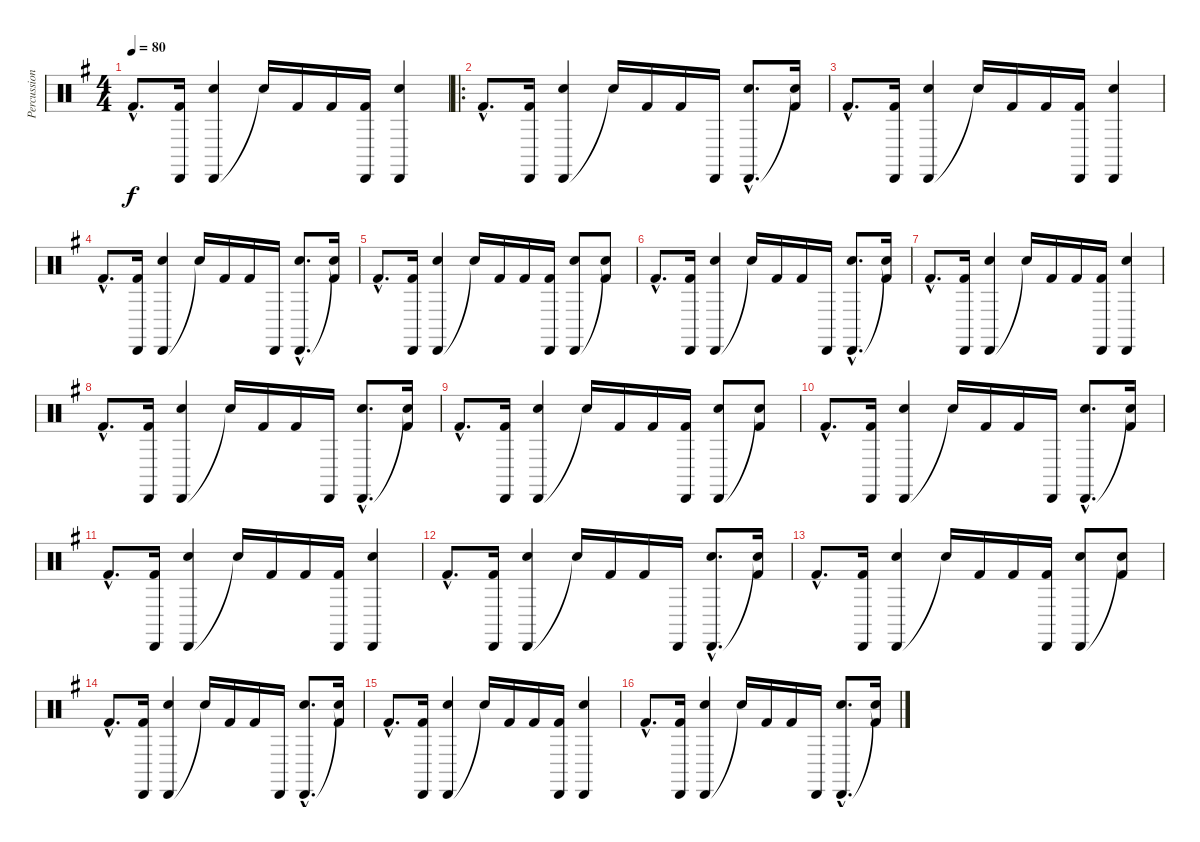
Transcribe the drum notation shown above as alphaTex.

\track ("Percussions" "Percussion") {instrument percussion}
\staff {score}
\articulation defaults
\ts (4 4)
\tempo 80
\clef neutral
\ks g "Kick (hit) 2"{hac}.8{d dy f}
("Cabasa (hit)" "Kick (hit) 2").16 ("Cabasa (hit)" "Electric Snare (hit)").4 "Snare (hit)"{t}.16 "Kick (hit) 2".16 "Kick (hit) 2".16 ("Cabasa (hit)" "Kick (hit) 2").16 ("Cabasa (hit)" "Electric Snare (hit)").4 |
\ro "Kick (hit) 2"{hac}.8{d}
("Cabasa (hit)" "Kick (hit) 2").16 ("Cabasa (hit)" "Electric Snare (hit)").4 "Snare (hit)"{t}.16 "Kick (hit) 2".16 "Kick (hit) 2".16 "Cabasa (hit)".16 ("Cabasa (hit)"{hac} "Electric Snare (hit)"{hac}).8{d} ("Snare (hit)"{t} "Kick (hit) 2").16 |
"Kick (hit) 2"{hac}.8{d} ("Cabasa (hit)" "Kick (hit) 2").16 ("Cabasa (hit)" "Electric Snare (hit)").4 "Snare (hit)"{t}.16 "Kick (hit) 2".16 "Kick (hit) 2".16 ("Cabasa (hit)" "Kick (hit) 2").16 ("Cabasa (hit)" "Electric Snare (hit)").4 |
"Kick (hit) 2"{hac}.8{d} ("Cabasa (hit)" "Kick (hit) 2").16 ("Cabasa (hit)" "Electric Snare (hit)").4 "Snare (hit)"{t}.16 "Kick (hit) 2".16 "Kick (hit) 2".16 "Cabasa (hit)".16 ("Cabasa (hit)"{hac} "Electric Snare (hit)"{hac}).8{d} ("Snare (hit)"{t} "Kick (hit) 2").16 |
"Kick (hit) 2"{hac}.8{d} ("Cabasa (hit)" "Kick (hit) 2").16 ("Cabasa (hit)" "Electric Snare (hit)").4 "Snare (hit)"{t}.16 "Kick (hit) 2".16 "Kick (hit) 2".16 ("Cabasa (hit)" "Kick (hit) 2").16 ("Cabasa (hit)" "Electric Snare (hit)").8 ("Snare (hit)"{t} "Kick (hit) 2").8 |
"Kick (hit) 2"{hac}.8{d} ("Cabasa (hit)" "Kick (hit) 2").16 ("Cabasa (hit)" "Electric Snare (hit)").4 "Snare (hit)"{t}.16 "Kick (hit) 2".16 "Kick (hit) 2".16 "Cabasa (hit)".16 ("Cabasa (hit)"{hac} "Electric Snare (hit)"{hac}).8{d} ("Snare (hit)"{t} "Kick (hit) 2").16 |
"Kick (hit) 2"{hac}.8{d} ("Cabasa (hit)" "Kick (hit) 2").16 ("Cabasa (hit)" "Electric Snare (hit)").4 "Snare (hit)"{t}.16 "Kick (hit) 2".16 "Kick (hit) 2".16 ("Cabasa (hit)" "Kick (hit) 2").16 ("Cabasa (hit)" "Electric Snare (hit)").4 |
"Kick (hit) 2"{hac}.8{d} ("Cabasa (hit)" "Kick (hit) 2").16 ("Cabasa (hit)" "Electric Snare (hit)").4 "Snare (hit)"{t}.16 "Kick (hit) 2".16 "Kick (hit) 2".16 "Cabasa (hit)".16 ("Cabasa (hit)"{hac} "Electric Snare (hit)"{hac}).8{d} ("Snare (hit)"{t} "Kick (hit) 2").16 |
"Kick (hit) 2"{hac}.8{d} ("Cabasa (hit)" "Kick (hit) 2").16 ("Cabasa (hit)" "Electric Snare (hit)").4 "Snare (hit)"{t}.16 "Kick (hit) 2".16 "Kick (hit) 2".16 ("Cabasa (hit)" "Kick (hit) 2").16 ("Cabasa (hit)" "Electric Snare (hit)").8 ("Snare (hit)"{t} "Kick (hit) 2").8 |
"Kick (hit) 2"{hac}.8{d} ("Cabasa (hit)" "Kick (hit) 2").16 ("Cabasa (hit)" "Electric Snare (hit)").4 "Snare (hit)"{t}.16 "Kick (hit) 2".16 "Kick (hit) 2".16 "Cabasa (hit)".16 ("Cabasa (hit)"{hac} "Electric Snare (hit)"{hac}).8{d} ("Snare (hit)"{t} "Kick (hit) 2").16 |
"Kick (hit) 2"{hac}.8{d} ("Cabasa (hit)" "Kick (hit) 2").16 ("Cabasa (hit)" "Electric Snare (hit)").4 "Snare (hit)"{t}.16 "Kick (hit) 2".16 "Kick (hit) 2".16 ("Cabasa (hit)" "Kick (hit) 2").16 ("Cabasa (hit)" "Electric Snare (hit)").4 |
"Kick (hit) 2"{hac}.8{d} ("Cabasa (hit)" "Kick (hit) 2").16 ("Cabasa (hit)" "Electric Snare (hit)").4 "Snare (hit)"{t}.16 "Kick (hit) 2".16 "Kick (hit) 2".16 "Cabasa (hit)".16 ("Cabasa (hit)"{hac} "Electric Snare (hit)"{hac}).8{d} ("Snare (hit)"{t} "Kick (hit) 2").16 |
"Kick (hit) 2"{hac}.8{d} ("Cabasa (hit)" "Kick (hit) 2").16 ("Cabasa (hit)" "Electric Snare (hit)").4 "Snare (hit)"{t}.16 "Kick (hit) 2".16 "Kick (hit) 2".16 ("Cabasa (hit)" "Kick (hit) 2").16 ("Cabasa (hit)" "Electric Snare (hit)").8 ("Snare (hit)"{t} "Kick (hit) 2").8 |
"Kick (hit) 2"{hac}.8{d} ("Cabasa (hit)" "Kick (hit) 2").16 ("Cabasa (hit)" "Electric Snare (hit)").4 "Snare (hit)"{t}.16 "Kick (hit) 2".16 "Kick (hit) 2".16 "Cabasa (hit)".16 ("Cabasa (hit)"{hac} "Electric Snare (hit)"{hac}).8{d} ("Snare (hit)"{t} "Kick (hit) 2").16 |
"Kick (hit) 2"{hac}.8{d} ("Cabasa (hit)" "Kick (hit) 2").16 ("Cabasa (hit)" "Electric Snare (hit)").4 "Snare (hit)"{t}.16 "Kick (hit) 2".16 "Kick (hit) 2".16 ("Cabasa (hit)" "Kick (hit) 2").16 ("Cabasa (hit)" "Electric Snare (hit)").4 |
"Kick (hit) 2"{hac}.8{d} ("Cabasa (hit)" "Kick (hit) 2").16 ("Cabasa (hit)" "Electric Snare (hit)").4 "Snare (hit)"{t}.16 "Kick (hit) 2".16 "Kick (hit) 2".16 "Cabasa (hit)".16 ("Cabasa (hit)"{hac} "Electric Snare (hit)"{hac}).8{d} ("Snare (hit)"{t} "Kick (hit) 2").16
